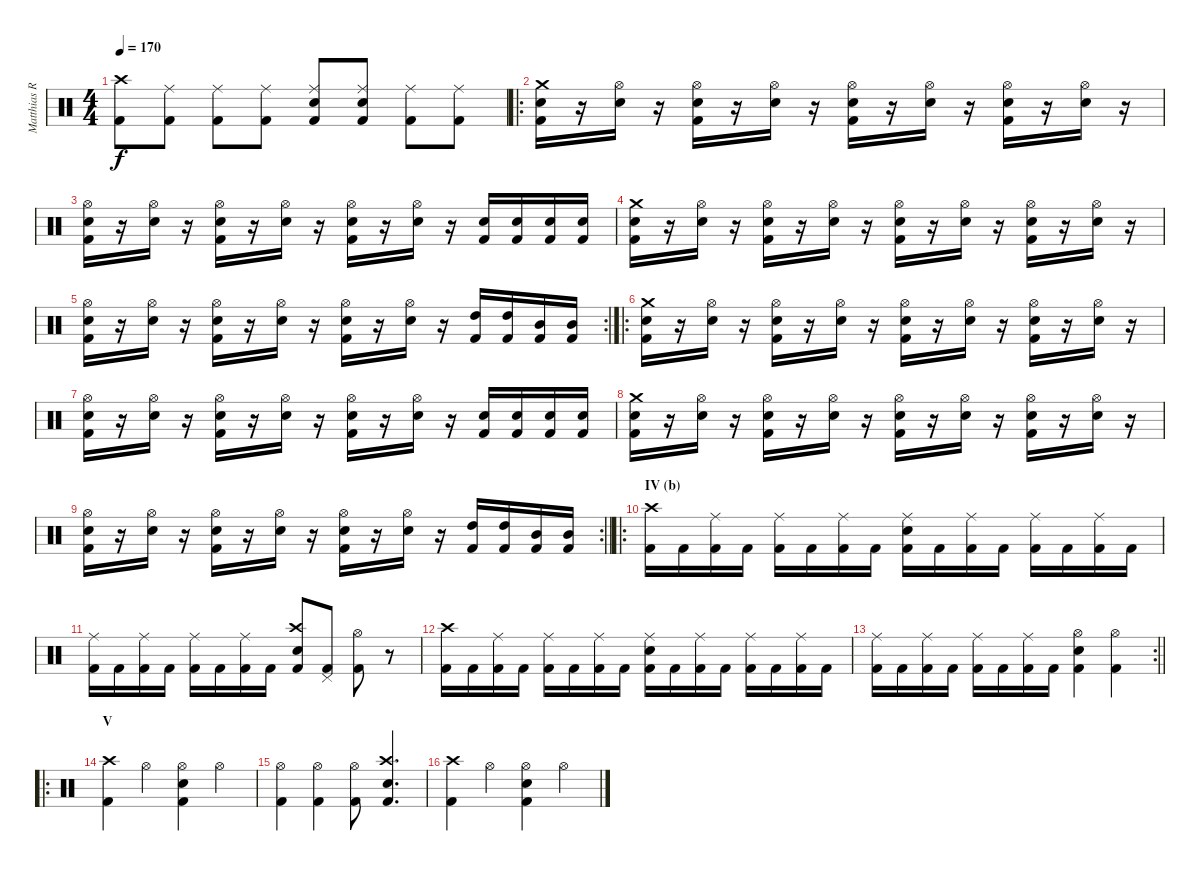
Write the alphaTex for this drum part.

\track ("Matthias R." "Matthias R") {instrument percussion}
\staff {score}
\articulation defaults
\ts (4 4)
\tempo 170
\clef neutral
\ks c
("Kick (hit) 2" "Crash high (hit)").8{dy f} ("Kick (hit) 2" "Ride (middle)").8 ("Kick (hit) 2" "Ride (middle)").8 ("Kick (hit) 2" "Ride (middle)").8 ("Kick (hit) 2" "Snare (hit) 2" "Ride (middle)").8 ("Kick (hit) 2" "Snare (hit) 2" "Ride (middle)").8 ("Kick (hit) 2" "Ride (middle)").8 ("Kick (hit) 2" "Ride (middle)").8 |
\ro
("Kick (hit) 2" "Snare (hit) 2" "Crash medium (hit)").16 r.16 ("Snare (hit) 2" "Hi-Hat (open)").16 r.16 ("Kick (hit) 2" "Snare (hit) 2" "Hi-Hat (open)").16 r.16 ("Snare (hit) 2" "Hi-Hat (open)").16 r.16 ("Kick (hit) 2" "Snare (hit) 2" "Hi-Hat (open)").16 r.16 ("Snare (hit) 2" "Hi-Hat (open)").16 r.16 ("Kick (hit) 2" "Snare (hit) 2" "Hi-Hat (open)").16 r.16 ("Snare (hit) 2" "Hi-Hat (open)").16 r.16 |
("Kick (hit) 2" "Snare (hit) 2" "Hi-Hat (open)").16 r.16 ("Snare (hit) 2" "Hi-Hat (open)").16 r.16 ("Kick (hit) 2" "Snare (hit) 2" "Hi-Hat (open)").16 r.16 ("Snare (hit) 2" "Hi-Hat (open)").16 r.16 ("Kick (hit) 2" "Snare (hit) 2" "Hi-Hat (open)").16 r.16 ("Snare (hit) 2" "Hi-Hat (open)").16 r.16 ("Kick (hit) 2" "Snare (hit) 2").16 ("Kick (hit) 2" "Snare (hit) 2").16 ("Kick (hit) 2" "Snare (hit) 2").16 ("Kick (hit) 2" "Snare (hit) 2").16 |
("Kick (hit) 2" "Snare (hit) 2" "Crash medium (hit)").16 r.16 ("Snare (hit) 2" "Hi-Hat (open)").16 r.16 ("Kick (hit) 2" "Snare (hit) 2" "Hi-Hat (open)").16 r.16 ("Snare (hit) 2" "Hi-Hat (open)").16 r.16 ("Kick (hit) 2" "Snare (hit) 2" "Hi-Hat (open)").16 r.16 ("Snare (hit) 2" "Hi-Hat (open)").16 r.16 ("Kick (hit) 2" "Snare (hit) 2" "Hi-Hat (open)").16 r.16 ("Snare (hit) 2" "Hi-Hat (open)").16 r.16 |
\rc 2
("Kick (hit) 2" "Snare (hit) 2" "Hi-Hat (open)").16 r.16 ("Snare (hit) 2" "Hi-Hat (open)").16 r.16 ("Kick (hit) 2" "Snare (hit) 2" "Hi-Hat (open)").16 r.16 ("Snare (hit) 2" "Hi-Hat (open)").16 r.16 ("Kick (hit) 2" "Snare (hit) 2" "Hi-Hat (open)").16 r.16 ("Snare (hit) 2" "Hi-Hat (open)").16 r.16 ("Kick (hit) 2" "High Tom (hit)").16 ("Kick (hit) 2" "High Tom (hit)").16 ("Kick (hit) 2" "Mid Tom (hit)").16 ("Kick (hit) 2" "Mid Tom (hit)").16 |
\ro
("Kick (hit) 2" "Snare (hit) 2" "Crash medium (hit)").16 r.16 ("Snare (hit) 2" "Hi-Hat (open)").16 r.16 ("Kick (hit) 2" "Snare (hit) 2" "Hi-Hat (open)").16 r.16 ("Snare (hit) 2" "Hi-Hat (open)").16 r.16 ("Kick (hit) 2" "Snare (hit) 2" "Hi-Hat (open)").16 r.16 ("Snare (hit) 2" "Hi-Hat (open)").16 r.16 ("Kick (hit) 2" "Snare (hit) 2" "Hi-Hat (open)").16 r.16 ("Snare (hit) 2" "Hi-Hat (open)").16 r.16 |
("Kick (hit) 2" "Snare (hit) 2" "Hi-Hat (open)").16 r.16 ("Snare (hit) 2" "Hi-Hat (open)").16 r.16 ("Kick (hit) 2" "Snare (hit) 2" "Hi-Hat (open)").16 r.16 ("Snare (hit) 2" "Hi-Hat (open)").16 r.16 ("Kick (hit) 2" "Snare (hit) 2" "Hi-Hat (open)").16 r.16 ("Snare (hit) 2" "Hi-Hat (open)").16 r.16 ("Kick (hit) 2" "Snare (hit) 2").16 ("Kick (hit) 2" "Snare (hit) 2").16 ("Kick (hit) 2" "Snare (hit) 2").16 ("Kick (hit) 2" "Snare (hit) 2").16 |
("Kick (hit) 2" "Snare (hit) 2" "Crash medium (hit)").16 r.16 ("Snare (hit) 2" "Hi-Hat (open)").16 r.16 ("Kick (hit) 2" "Snare (hit) 2" "Hi-Hat (open)").16 r.16 ("Snare (hit) 2" "Hi-Hat (open)").16 r.16 ("Kick (hit) 2" "Snare (hit) 2" "Hi-Hat (open)").16 r.16 ("Snare (hit) 2" "Hi-Hat (open)").16 r.16 ("Kick (hit) 2" "Snare (hit) 2" "Hi-Hat (open)").16 r.16 ("Snare (hit) 2" "Hi-Hat (open)").16 r.16 |
\rc 2
\barLineRight lightlight
("Kick (hit) 2" "Snare (hit) 2" "Hi-Hat (open)").16 r.16 ("Snare (hit) 2" "Hi-Hat (open)").16 r.16 ("Kick (hit) 2" "Snare (hit) 2" "Hi-Hat (open)").16 r.16 ("Snare (hit) 2" "Hi-Hat (open)").16 r.16 ("Kick (hit) 2" "Snare (hit) 2" "Hi-Hat (open)").16 r.16 ("Snare (hit) 2" "Hi-Hat (open)").16 r.16 ("Kick (hit) 2" "High Tom (hit)").16 ("Kick (hit) 2" "High Tom (hit)").16 ("Kick (hit) 2" "Mid Tom (hit)").16 ("Kick (hit) 2" "Mid Tom (hit)").16 |
\ro
\section ("" "IV (b)")
("Kick (hit) 2" "Crash high (hit)").16 "Kick (hit) 2".16 ("Kick (hit) 2" "Ride (middle)").16 "Kick (hit) 2".16 ("Kick (hit) 2" "Ride (middle)").16 "Kick (hit) 2".16 ("Kick (hit) 2" "Ride (middle)").16 "Kick (hit) 2".16 ("Kick (hit) 2" "Snare (hit) 2" "Ride (middle)").16 "Kick (hit) 2".16 ("Kick (hit) 2" "Ride (middle)").16 "Kick (hit) 2".16 ("Kick (hit) 2" "Ride (middle)").16 "Kick (hit) 2".16 ("Kick (hit) 2" "Ride (middle)").16 "Kick (hit) 2".16 |
("Kick (hit) 2" "Ride (middle)").16 "Kick (hit) 2".16 ("Kick (hit) 2" "Ride (middle)").16 "Kick (hit) 2".16 ("Kick (hit) 2" "Ride (middle)").16 "Kick (hit) 2".16 ("Kick (hit) 2" "Ride (middle)").16 "Kick (hit) 2".16 ("Kick (hit) 2" "Snare (hit) 2" "Crash high (hit)").8 ("Kick (hit) 2" "Pedal Hi-Hat (hit)").8 ("Kick (hit) 2" "Hi-Hat (open)").8 r.8 |
("Kick (hit) 2" "Crash high (hit)").16 "Kick (hit) 2".16 ("Kick (hit) 2" "Ride (middle)").16 "Kick (hit) 2".16 ("Kick (hit) 2" "Ride (middle)").16 "Kick (hit) 2".16 ("Kick (hit) 2" "Ride (middle)").16 "Kick (hit) 2".16 ("Kick (hit) 2" "Snare (hit) 2" "Ride (middle)").16 "Kick (hit) 2".16 ("Kick (hit) 2" "Ride (middle)").16 "Kick (hit) 2".16 ("Kick (hit) 2" "Ride (middle)").16 "Kick (hit) 2".16 ("Kick (hit) 2" "Ride (middle)").16 "Kick (hit) 2".16 |
\rc 2
\barLineRight lightlight
("Kick (hit) 2" "Ride (middle)").16 "Kick (hit) 2".16 ("Kick (hit) 2" "Ride (middle)").16 "Kick (hit) 2".16 ("Kick (hit) 2" "Ride (middle)").16 "Kick (hit) 2".16 ("Kick (hit) 2" "Ride (middle)").16 "Kick (hit) 2".16 ("Kick (hit) 2" "Snare (hit) 2" "Hi-Hat (open)").4 ("Kick (hit) 2" "Hi-Hat (open)").4 |
\ro
\section ("" "V")
("Kick (hit) 2" "Crash high (hit)").4 "Hi-Hat (open)".4 ("Kick (hit) 2" "Snare (hit) 2" "Hi-Hat (open)").4 "Hi-Hat (open)".4 |
("Kick (hit) 2" "Hi-Hat (open)").4 ("Kick (hit) 2" "Hi-Hat (open)").4 ("Kick (hit) 2" "Hi-Hat (open)").8 ("Kick (hit) 2" "Snare (hit) 2" "Crash high (hit)").4{d} |
("Kick (hit) 2" "Crash high (hit)").4 "Hi-Hat (open)".4 ("Kick (hit) 2" "Snare (hit) 2" "Hi-Hat (open)").4 "Hi-Hat (open)".4
